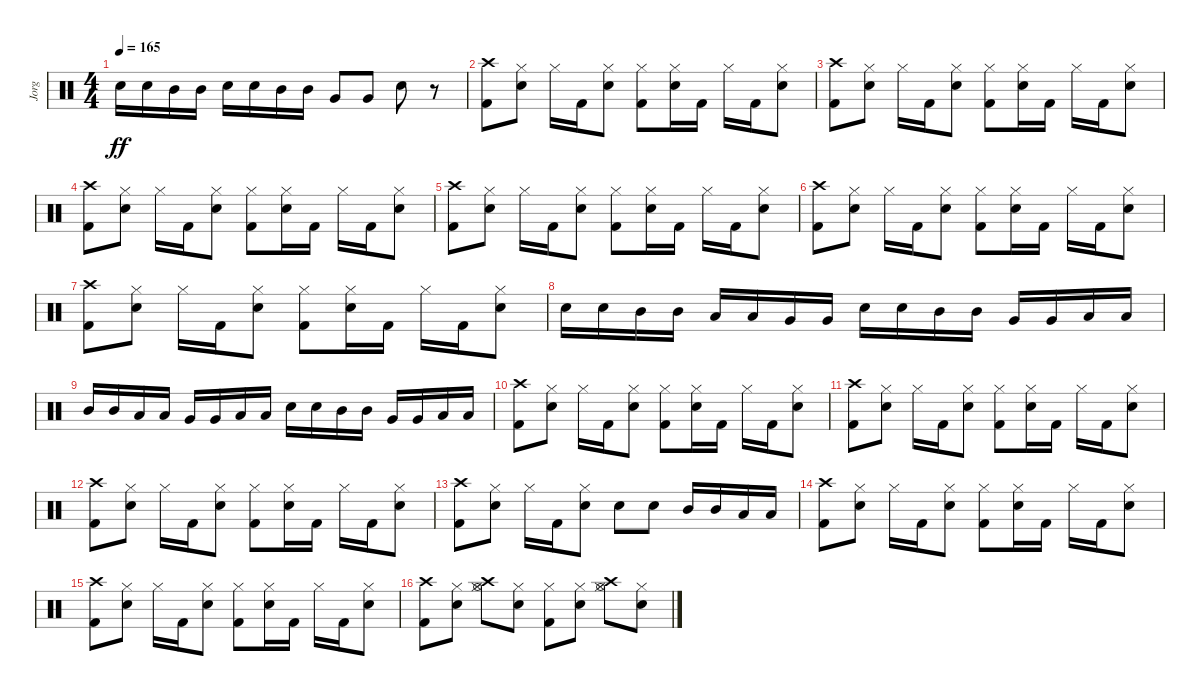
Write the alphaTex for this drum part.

\track ("Jorg" "Jorg") {instrument percussion}
\staff {score}
\articulation defaults
\ts (4 4)
\tempo 165
\clef neutral
\ks c "Electric Snare (hit)".16{dy ff} "Electric Snare (hit)".16 "Mid Tom (hit)".16 "Mid Tom (hit)".16 "Electric Snare (hit)".16 "Electric Snare (hit)".16 "Mid Tom (hit)".16 "Mid Tom (hit)".16 "Very Low Tom (hit)".8 "Very Low Tom (hit)".8 "Electric Snare (hit)".8
r.8 |
("Kick (hit) 2" "Crash high (hit)").8 ("Snare (hit) 2" "Hi-Hat (closed)").8 "Hi-Hat (closed)".16 "Kick (hit) 2".16 ("Snare (hit) 2" "Hi-Hat (closed)").8 ("Kick (hit) 2" "Hi-Hat (closed)").8 ("Snare (hit) 2" "Hi-Hat (closed)").16 "Kick (hit) 2".16 "Hi-Hat (closed)".16 "Kick (hit) 2".16 ("Snare (hit) 2" "Hi-Hat (closed)").8 |
("Kick (hit) 2" "Crash high (hit)").8 ("Snare (hit) 2" "Hi-Hat (closed)").8 "Hi-Hat (closed)".16 "Kick (hit) 2".16 ("Snare (hit) 2" "Hi-Hat (closed)").8 ("Kick (hit) 2" "Hi-Hat (closed)").8 ("Snare (hit) 2" "Hi-Hat (closed)").16 "Kick (hit) 2".16 "Hi-Hat (closed)".16 "Kick (hit) 2".16 ("Snare (hit) 2" "Hi-Hat (closed)").8 |
("Kick (hit) 2" "Crash high (hit)").8 ("Snare (hit) 2" "Hi-Hat (closed)").8 "Hi-Hat (closed)".16 "Kick (hit) 2".16 ("Snare (hit) 2" "Hi-Hat (closed)").8 ("Kick (hit) 2" "Hi-Hat (closed)").8 ("Snare (hit) 2" "Hi-Hat (closed)").16 "Kick (hit) 2".16 "Hi-Hat (closed)".16 "Kick (hit) 2".16 ("Snare (hit) 2" "Hi-Hat (closed)").8 |
("Kick (hit) 2" "Crash high (hit)").8 ("Snare (hit) 2" "Hi-Hat (closed)").8 "Hi-Hat (closed)".16 "Kick (hit) 2".16 ("Snare (hit) 2" "Hi-Hat (closed)").8 ("Kick (hit) 2" "Hi-Hat (closed)").8 ("Snare (hit) 2" "Hi-Hat (closed)").16 "Kick (hit) 2".16 "Hi-Hat (closed)".16 "Kick (hit) 2".16 ("Snare (hit) 2" "Hi-Hat (closed)").8 |
("Kick (hit) 2" "Crash high (hit)").8 ("Snare (hit) 2" "Hi-Hat (closed)").8 "Hi-Hat (closed)".16 "Kick (hit) 2".16 ("Snare (hit) 2" "Hi-Hat (closed)").8 ("Kick (hit) 2" "Hi-Hat (closed)").8 ("Snare (hit) 2" "Hi-Hat (closed)").16 "Kick (hit) 2".16 "Hi-Hat (closed)".16 "Kick (hit) 2".16 ("Snare (hit) 2" "Hi-Hat (closed)").8 |
("Kick (hit) 2" "Crash high (hit)").8 ("Snare (hit) 2" "Hi-Hat (closed)").8 "Hi-Hat (closed)".16 "Kick (hit) 2".16 ("Snare (hit) 2" "Hi-Hat (closed)").8 ("Kick (hit) 2" "Hi-Hat (closed)").8 ("Snare (hit) 2" "Hi-Hat (closed)").16 "Kick (hit) 2".16 "Hi-Hat (closed)".16 "Kick (hit) 2".16 ("Snare (hit) 2" "Hi-Hat (closed)").8 |
"Electric Snare (hit)".16 "Electric Snare (hit)".16 "Mid Tom (hit)".16 "Mid Tom (hit)".16 "Low Tom (hit)".16 "Low Tom (hit)".16 "Very Low Tom (hit)".16 "Very Low Tom (hit)".16 "Electric Snare (hit)".16 "Electric Snare (hit)".16 "Mid Tom (hit)".16 "Mid Tom (hit)".16 "Very Low Tom (hit)".16 "Very Low Tom (hit)".16 "Low Floor Tom (hit)".16 "Low Floor Tom (hit)".16 |
"Mid Tom (hit)".16 "Mid Tom (hit)".16 "Low Tom (hit)".16 "Low Tom (hit)".16 "Very Low Tom (hit)".16 "Very Low Tom (hit)".16 "Low Floor Tom (hit)".16 "Low Floor Tom (hit)".16 "Electric Snare (hit)".16 "Electric Snare (hit)".16 "Mid Tom (hit)".16 "Mid Tom (hit)".16 "Very Low Tom (hit)".16 "Very Low Tom (hit)".16 "Low Floor Tom (hit)".16 "Low Floor Tom (hit)".16 |
("Kick (hit) 2" "Crash high (hit)").8 ("Snare (hit) 2" "Hi-Hat (closed)").8 "Hi-Hat (closed)".16 "Kick (hit) 2".16 ("Snare (hit) 2" "Hi-Hat (closed)").8 ("Kick (hit) 2" "Hi-Hat (closed)").8 ("Snare (hit) 2" "Hi-Hat (closed)").16 "Kick (hit) 2".16 "Hi-Hat (closed)".16 "Kick (hit) 2".16 ("Snare (hit) 2" "Hi-Hat (closed)").8 |
("Kick (hit) 2" "Crash high (hit)").8 ("Snare (hit) 2" "Hi-Hat (closed)").8 "Hi-Hat (closed)".16 "Kick (hit) 2".16 ("Snare (hit) 2" "Hi-Hat (closed)").8 ("Kick (hit) 2" "Hi-Hat (closed)").8 ("Snare (hit) 2" "Hi-Hat (closed)").16 "Kick (hit) 2".16 "Hi-Hat (closed)".16 "Kick (hit) 2".16 ("Snare (hit) 2" "Hi-Hat (closed)").8 |
("Kick (hit) 2" "Crash high (hit)").8 ("Snare (hit) 2" "Hi-Hat (closed)").8 "Hi-Hat (closed)".16 "Kick (hit) 2".16 ("Snare (hit) 2" "Hi-Hat (closed)").8 ("Kick (hit) 2" "Hi-Hat (closed)").8 ("Snare (hit) 2" "Hi-Hat (closed)").16 "Kick (hit) 2".16 "Hi-Hat (closed)".16 "Kick (hit) 2".16 ("Snare (hit) 2" "Hi-Hat (closed)").8 |
("Kick (hit) 2" "Crash high (hit)").8 ("Snare (hit) 2" "Hi-Hat (closed)").8 "Hi-Hat (closed)".16 "Kick (hit) 2".16 ("Snare (hit) 2" "Hi-Hat (closed)").8 "Electric Snare (hit)".8 "Electric Snare (hit)".8 "Mid Tom (hit)".16 "Mid Tom (hit)".16 "Low Tom (hit)".16 "Low Tom (hit)".16 |
("Kick (hit) 2" "Crash high (hit)").8 ("Snare (hit) 2" "Hi-Hat (closed)").8 "Hi-Hat (closed)".16 "Kick (hit) 2".16 ("Snare (hit) 2" "Hi-Hat (closed)").8 ("Kick (hit) 2" "Hi-Hat (closed)").8 ("Snare (hit) 2" "Hi-Hat (closed)").16 "Kick (hit) 2".16 "Hi-Hat (closed)".16 "Kick (hit) 2".16 ("Snare (hit) 2" "Hi-Hat (closed)").8 |
("Kick (hit) 2" "Crash high (hit)").8 ("Snare (hit) 2" "Hi-Hat (closed)").8 "Hi-Hat (closed)".16 "Kick (hit) 2".16 ("Snare (hit) 2" "Hi-Hat (closed)").8 ("Kick (hit) 2" "Hi-Hat (closed)").8 ("Snare (hit) 2" "Hi-Hat (closed)").16 "Kick (hit) 2".16 "Hi-Hat (closed)".16 "Kick (hit) 2".16 ("Snare (hit) 2" "Hi-Hat (closed)").8 |
("Kick (hit) 2" "Crash high (hit)").8 ("Snare (hit) 2" "Hi-Hat (closed)").8 ("Hi-Hat (open)" "Crash high (hit)" "Hi-Hat (closed)").8 ("Snare (hit) 2" "Hi-Hat (closed)").8 ("Kick (hit) 2" "Hi-Hat (closed)").8 ("Snare (hit) 2" "Hi-Hat (closed)").8 ("Hi-Hat (open)" "Crash high (hit)" "Hi-Hat (closed)").8 ("Snare (hit) 2" "Hi-Hat (closed)").8
